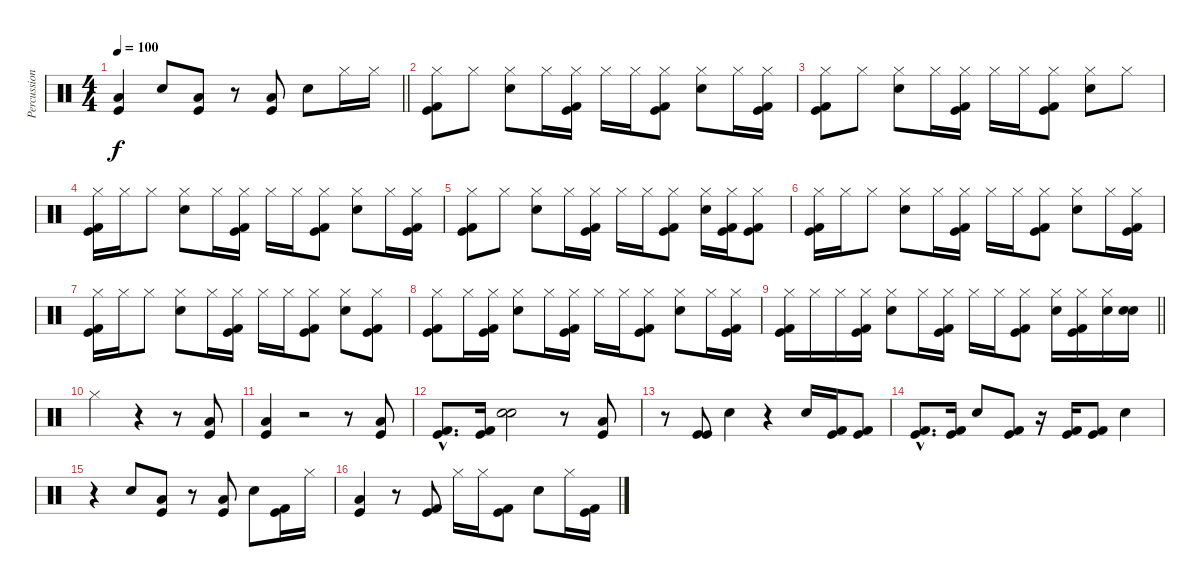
\track ("Percussions" "Percussion") {instrument percussion}
\staff {score}
\articulation defaults
\ts (4 4)
\tempo 100
\clef neutral
\barLineRight lightlight
\ks c
("Low Floor Tom (hit)" "Kick (hit)").4{dy f} "Electric Snare (hit)".8 ("Low Floor Tom (hit)" "Kick (hit)").8 r.8 ("Low Floor Tom (hit)" "Kick (hit)").8 "Electric Snare (hit)".8 "Hi-Hat (closed)".16 "Hi-Hat (closed)".16 |
\section ("" "")
("Hi-Hat (closed)" "Kick (hit) 2" "Kick (hit)").8 "Hi-Hat (closed)".8 ("Hi-Hat (closed)" "Electric Snare (hit)").8 "Hi-Hat (closed)".16 ("Hi-Hat (closed)" "Kick (hit) 2" "Kick (hit)").16 "Hi-Hat (closed)".16 "Hi-Hat (closed)".16 ("Hi-Hat (closed)" "Kick (hit) 2" "Kick (hit)").8 ("Hi-Hat (closed)" "Electric Snare (hit)").8 "Hi-Hat (closed)".16 ("Hi-Hat (closed)" "Kick (hit) 2" "Kick (hit)").16 |
("Hi-Hat (closed)" "Kick (hit) 2" "Kick (hit)").8 "Hi-Hat (closed)".8 ("Hi-Hat (closed)" "Electric Snare (hit)").8 "Hi-Hat (closed)".16 ("Hi-Hat (closed)" "Kick (hit) 2" "Kick (hit)").16 "Hi-Hat (closed)".16 "Hi-Hat (closed)".16 ("Hi-Hat (closed)" "Kick (hit) 2" "Kick (hit)").8 ("Hi-Hat (closed)" "Electric Snare (hit)").8 "Hi-Hat (closed)".8 |
("Hi-Hat (closed)" "Kick (hit) 2" "Kick (hit)").16 "Hi-Hat (closed)".16 "Hi-Hat (closed)".8 ("Hi-Hat (closed)" "Electric Snare (hit)").8 "Hi-Hat (closed)".16 ("Hi-Hat (closed)" "Kick (hit) 2" "Kick (hit)").16 "Hi-Hat (closed)".16 "Hi-Hat (closed)".16 ("Hi-Hat (closed)" "Kick (hit) 2" "Kick (hit)").8 ("Hi-Hat (closed)" "Electric Snare (hit)").8 "Hi-Hat (closed)".16 ("Hi-Hat (closed)" "Kick (hit) 2" "Kick (hit)").16 |
("Hi-Hat (closed)" "Kick (hit) 2" "Kick (hit)").8 "Hi-Hat (closed)".8 ("Hi-Hat (closed)" "Electric Snare (hit)").8 "Hi-Hat (closed)".16 ("Hi-Hat (closed)" "Kick (hit) 2" "Kick (hit)").16 "Hi-Hat (closed)".16 "Hi-Hat (closed)".16 ("Hi-Hat (closed)" "Kick (hit) 2" "Kick (hit)").8 ("Hi-Hat (closed)" "Electric Snare (hit)").16 ("Hi-Hat (closed)" "Kick (hit) 2" "Kick (hit)").16 ("Hi-Hat (closed)" "Kick (hit) 2" "Kick (hit)").8 |
("Hi-Hat (closed)" "Kick (hit) 2" "Kick (hit)").16 "Hi-Hat (closed)".16 "Hi-Hat (closed)".8 ("Hi-Hat (closed)" "Electric Snare (hit)").8 "Hi-Hat (closed)".16 ("Hi-Hat (closed)" "Kick (hit) 2" "Kick (hit)").16 "Hi-Hat (closed)".16 "Hi-Hat (closed)".16 ("Hi-Hat (closed)" "Kick (hit) 2" "Kick (hit)").8 ("Hi-Hat (closed)" "Electric Snare (hit)").8 "Hi-Hat (closed)".16 ("Hi-Hat (closed)" "Kick (hit) 2" "Kick (hit)").16 |
("Hi-Hat (closed)" "Kick (hit) 2" "Kick (hit)").16 "Hi-Hat (closed)".16 "Hi-Hat (closed)".8 ("Hi-Hat (closed)" "Electric Snare (hit)").8 "Hi-Hat (closed)".16 ("Hi-Hat (closed)" "Kick (hit) 2" "Kick (hit)").16 "Hi-Hat (closed)".16 "Hi-Hat (closed)".16 ("Hi-Hat (closed)" "Kick (hit) 2" "Kick (hit)").8 ("Hi-Hat (closed)" "Electric Snare (hit)").8 ("Hi-Hat (closed)" "Kick (hit) 2" "Kick (hit)").8 |
("Hi-Hat (closed)" "Kick (hit) 2" "Kick (hit)").8 "Hi-Hat (closed)".16 ("Hi-Hat (closed)" "Kick (hit) 2" "Kick (hit)").16 ("Hi-Hat (closed)" "Electric Snare (hit)").8 "Hi-Hat (closed)".16 ("Hi-Hat (closed)" "Kick (hit) 2" "Kick (hit)").16 "Hi-Hat (closed)".16 "Hi-Hat (closed)".16 ("Hi-Hat (closed)" "Kick (hit) 2" "Kick (hit)").8 ("Hi-Hat (closed)" "Electric Snare (hit)").8 "Hi-Hat (closed)".16 ("Hi-Hat (closed)" "Kick (hit) 2" "Kick (hit)").16 |
\barLineRight lightlight
("Hi-Hat (closed)" "Kick (hit) 2" "Kick (hit)").16 "Hi-Hat (closed)".16 "Hi-Hat (closed)".16 ("Hi-Hat (closed)" "Kick (hit) 2" "Kick (hit)").16 ("Hi-Hat (closed)" "Electric Snare (hit)").8 "Hi-Hat (closed)".16 ("Hi-Hat (closed)" "Kick (hit) 2" "Kick (hit)").16 "Hi-Hat (closed)".16 "Hi-Hat (closed)".16 ("Hi-Hat (closed)" "Kick (hit) 2" "Kick (hit)").8 ("Hi-Hat (closed)" "Electric Snare (hit)").16 ("Hi-Hat (closed)" "Kick (hit) 2" "Kick (hit)").16 ("Hi-Hat (closed)" "Electric Snare (hit)").16 ("Snare (hit)" "Electric Snare (hit)").16 |
\section ("" "")
"Hi-Hat (closed)".2 r.4 r.8 ("Low Tom (hit)" "Kick (hit)").8 |
("Low Tom (hit)" "Kick (hit)").4 r.2 r.8 ("Low Tom (hit)" "Kick (hit)").8 |
("Kick (hit) 2"{hac} "Kick (hit)"{hac}).8{d} ("Kick (hit) 2" "Kick (hit)").16 ("Electric Snare (hit)" "Electric Snare (hit)").2 r.8 ("Low Floor Tom (hit)" "Kick (hit)").8 |
r.8 ("Kick (hit)" "Kick (hit)").8 "Electric Snare (hit)".4 r.4 "Electric Snare (hit)".16 ("Kick (hit) 2" "Kick (hit)").16 ("Kick (hit) 2" "Kick (hit)").8 |
("Kick (hit) 2"{hac} "Kick (hit)"{hac}).8{d} ("Kick (hit) 2" "Kick (hit)").16 "Electric Snare (hit)".8 ("Kick (hit) 2" "Kick (hit)").8 r.16 ("Kick (hit) 2" "Kick (hit)").16 ("Kick (hit) 2" "Kick (hit)").8 "Electric Snare (hit)".4 |
r.4 "Electric Snare (hit)".8 ("Low Tom (hit)" "Kick (hit)").8 r.8 ("Low Floor Tom (hit)" "Kick (hit)").8 "Electric Snare (hit)".8 ("Kick (hit) 2" "Kick (hit)").16 "Hi-Hat (closed)".16 |
("Low Floor Tom (hit)" "Kick (hit)").4 r.8 ("Kick (hit) 2" "Kick (hit)").8 "Hi-Hat (closed)".16 "Hi-Hat (closed)".16 ("Kick (hit) 2" "Kick (hit)").8 "Electric Snare (hit)".8 "Hi-Hat (closed)".16 ("Kick (hit) 2" "Kick (hit)").16
